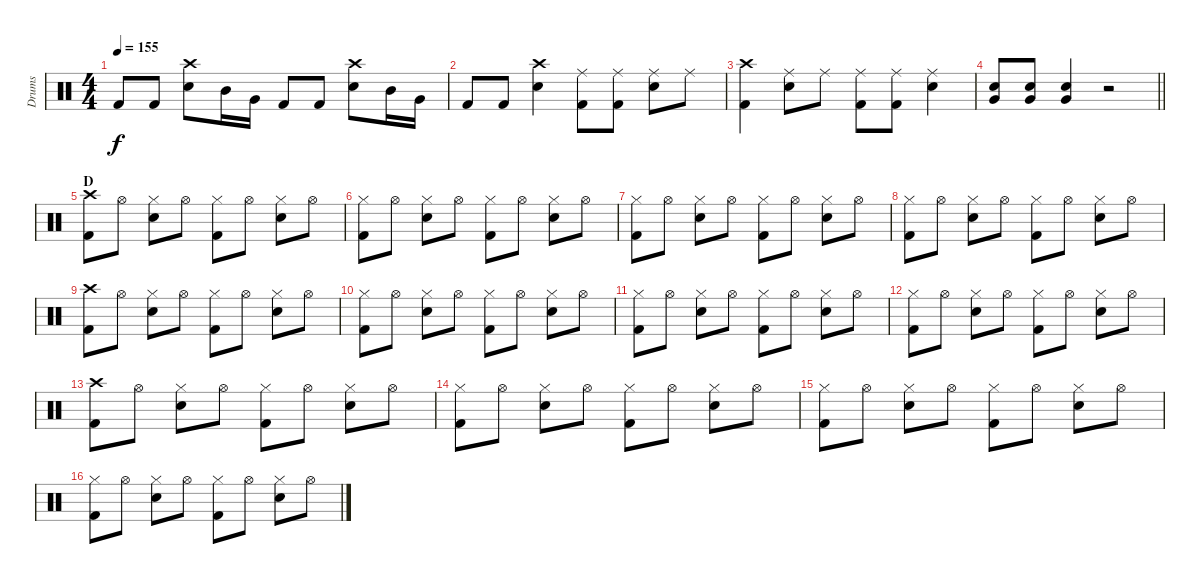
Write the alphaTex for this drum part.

\track ("Drums" "Drums") {instrument percussion}
\staff {score}
\articulation defaults
\ts (4 4)
\tempo 155
\clef neutral
\ks c "Kick (hit) 2".8{dy f} "Kick (hit) 2".8
("Crash high (hit)" "Snare (hit) 2").8 "Mid Tom (hit)".16 "Very Low Tom (hit)".16 "Kick (hit) 2".8 "Kick (hit) 2".8 ("Crash high (hit)" "Snare (hit) 2").8 "Mid Tom (hit)".16 "Very Low Tom (hit)".16 |
"Kick (hit) 2".8 "Kick (hit) 2".8 ("Crash high (hit)" "Snare (hit) 2").4 ("Ride (middle)" "Kick (hit) 2").8 ("Ride (middle)" "Kick (hit) 2").8 ("Ride (middle)" "Snare (hit) 2").8 "Ride (middle)".8 |
("Crash high (hit)" "Kick (hit) 2").4 ("Ride (middle)" "Snare (hit) 2").8 "Ride (middle)".8 ("Ride (middle)" "Kick (hit) 2").8 ("Ride (middle)" "Kick (hit) 2").8 ("Ride (middle)" "Snare (hit) 2").4 |
\barLineRight lightlight
("Snare (hit) 2" "Very Low Tom (hit)").8 ("Snare (hit) 2" "Very Low Tom (hit)").8 ("Snare (hit) 2" "Very Low Tom (hit)").4 r.2 |
\section ("" "D")
("Crash high (hit)" "Kick (hit) 2").8 "Hi-Hat (open)".8 ("Hi-Hat (closed)" "Snare (hit) 2").8 "Hi-Hat (open)".8 ("Hi-Hat (closed)" "Kick (hit) 2").8 "Hi-Hat (open)".8 ("Hi-Hat (closed)" "Snare (hit) 2").8 "Hi-Hat (open)".8 |
("Hi-Hat (closed)" "Kick (hit) 2").8 "Hi-Hat (open)".8 ("Hi-Hat (closed)" "Snare (hit) 2").8 "Hi-Hat (open)".8 ("Hi-Hat (closed)" "Kick (hit) 2").8 "Hi-Hat (open)".8 ("Hi-Hat (closed)" "Snare (hit) 2").8 "Hi-Hat (open)".8 |
("Hi-Hat (closed)" "Kick (hit) 2").8 "Hi-Hat (open)".8 ("Hi-Hat (closed)" "Snare (hit) 2").8 "Hi-Hat (open)".8 ("Hi-Hat (closed)" "Kick (hit) 2").8 "Hi-Hat (open)".8 ("Hi-Hat (closed)" "Snare (hit) 2").8 "Hi-Hat (open)".8 |
("Hi-Hat (closed)" "Kick (hit) 2").8 "Hi-Hat (open)".8 ("Hi-Hat (closed)" "Snare (hit) 2").8 "Hi-Hat (open)".8 ("Hi-Hat (closed)" "Kick (hit) 2").8 "Hi-Hat (open)".8 ("Hi-Hat (closed)" "Snare (hit) 2").8 "Hi-Hat (open)".8 |
("Crash high (hit)" "Kick (hit) 2").8 "Hi-Hat (open)".8 ("Hi-Hat (closed)" "Snare (hit) 2").8 "Hi-Hat (open)".8 ("Hi-Hat (closed)" "Kick (hit) 2").8 "Hi-Hat (open)".8 ("Hi-Hat (closed)" "Snare (hit) 2").8 "Hi-Hat (open)".8 |
("Hi-Hat (closed)" "Kick (hit) 2").8 "Hi-Hat (open)".8 ("Hi-Hat (closed)" "Snare (hit) 2").8 "Hi-Hat (open)".8 ("Hi-Hat (closed)" "Kick (hit) 2").8 "Hi-Hat (open)".8 ("Hi-Hat (closed)" "Snare (hit) 2").8 "Hi-Hat (open)".8 |
("Hi-Hat (closed)" "Kick (hit) 2").8 "Hi-Hat (open)".8 ("Hi-Hat (closed)" "Snare (hit) 2").8 "Hi-Hat (open)".8 ("Hi-Hat (closed)" "Kick (hit) 2").8 "Hi-Hat (open)".8 ("Hi-Hat (closed)" "Snare (hit) 2").8 "Hi-Hat (open)".8 |
("Hi-Hat (closed)" "Kick (hit) 2").8 "Hi-Hat (open)".8 ("Hi-Hat (closed)" "Snare (hit) 2").8 "Hi-Hat (open)".8 ("Hi-Hat (closed)" "Kick (hit) 2").8 "Hi-Hat (open)".8 ("Hi-Hat (closed)" "Snare (hit) 2").8 "Hi-Hat (open)".8 |
("Crash high (hit)" "Kick (hit) 2").8 "Hi-Hat (open)".8 ("Hi-Hat (closed)" "Snare (hit) 2").8 "Hi-Hat (open)".8 ("Hi-Hat (closed)" "Kick (hit) 2").8 "Hi-Hat (open)".8 ("Hi-Hat (closed)" "Snare (hit) 2").8 "Hi-Hat (open)".8 |
("Hi-Hat (closed)" "Kick (hit) 2").8 "Hi-Hat (open)".8 ("Hi-Hat (closed)" "Snare (hit) 2").8 "Hi-Hat (open)".8 ("Hi-Hat (closed)" "Kick (hit) 2").8 "Hi-Hat (open)".8 ("Hi-Hat (closed)" "Snare (hit) 2").8 "Hi-Hat (open)".8 |
("Hi-Hat (closed)" "Kick (hit) 2").8 "Hi-Hat (open)".8 ("Hi-Hat (closed)" "Snare (hit) 2").8 "Hi-Hat (open)".8 ("Hi-Hat (closed)" "Kick (hit) 2").8 "Hi-Hat (open)".8 ("Hi-Hat (closed)" "Snare (hit) 2").8 "Hi-Hat (open)".8 |
("Hi-Hat (closed)" "Kick (hit) 2").8 "Hi-Hat (open)".8 ("Hi-Hat (closed)" "Snare (hit) 2").8 "Hi-Hat (open)".8 ("Hi-Hat (closed)" "Kick (hit) 2").8 "Hi-Hat (open)".8 ("Hi-Hat (closed)" "Snare (hit) 2").8 "Hi-Hat (open)".8
